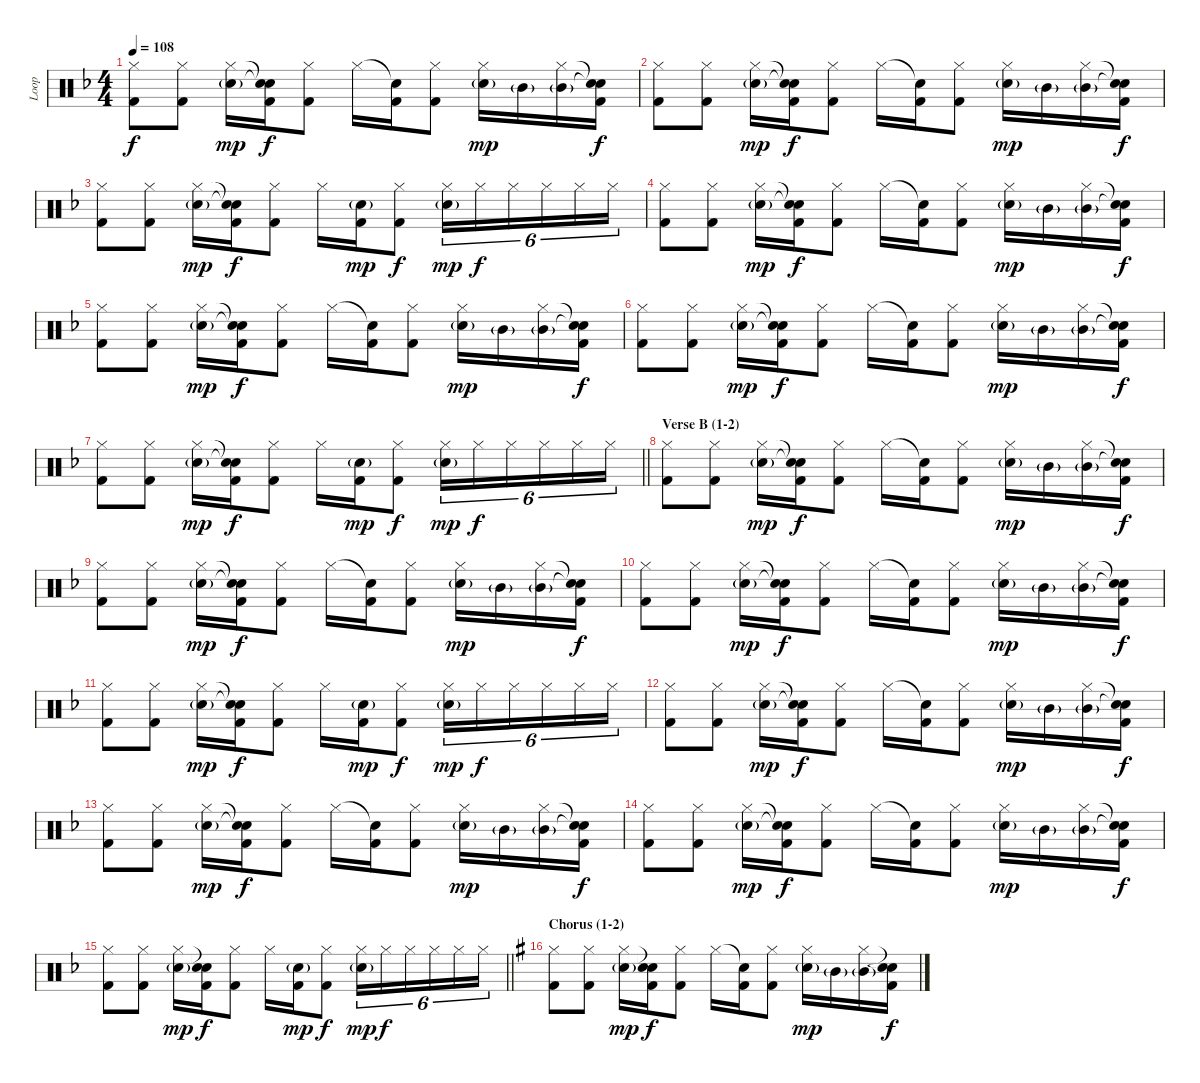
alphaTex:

\track ("Loop" "Loop") {instrument percussion}
\staff {score}
\articulation defaults
\ts (4 4)
\tempo 108
\clef neutral
\ks dminor
("Hi-Hat (closed)" "Kick (hit) 2").8{dy f} ("Hi-Hat (closed)" "Kick (hit) 2").8 ("Hi-Hat (closed)" "Electric Snare (hit)"{g}).16{dy mp} ("Snare (hit)"{t} "Snare (hit)"{t} "Kick (hit) 2").16{dy f} ("Hi-Hat (closed)" "Kick (hit) 2").8 "Hi-Hat (closed)".16 ("Snare (hit)"{t} "Kick (hit) 2").16 ("Hi-Hat (closed)" "Kick (hit) 2").8 ("Hi-Hat (closed)" "Electric Snare (hit)"{g}).16{dy mp} "Mid Tom (hit)"{g}.16 ("Hi-Hat (closed)" "Mid Tom (hit)"{g}).16 ("Snare (hit)"{t} "Snare (hit)"{t} "Kick (hit) 2").16{dy f} |
("Hi-Hat (closed)" "Kick (hit) 2").8 ("Hi-Hat (closed)" "Kick (hit) 2").8 ("Hi-Hat (closed)" "Electric Snare (hit)"{g}).16{dy mp} ("Snare (hit)"{t} "Snare (hit)"{t} "Kick (hit) 2").16{dy f} ("Hi-Hat (closed)" "Kick (hit) 2").8 "Hi-Hat (closed)".16 ("Snare (hit)"{t} "Kick (hit) 2").16 ("Hi-Hat (closed)" "Kick (hit) 2").8 ("Hi-Hat (closed)" "Electric Snare (hit)"{g}).16{dy mp} "Mid Tom (hit)"{g}.16 ("Hi-Hat (closed)" "Mid Tom (hit)"{g}).16 ("Snare (hit)"{t} "Snare (hit)"{t} "Kick (hit) 2").16{dy f} |
("Hi-Hat (closed)" "Kick (hit) 2").8 ("Hi-Hat (closed)" "Kick (hit) 2").8 ("Hi-Hat (closed)" "Electric Snare (hit)"{g}).16{dy mp} ("Snare (hit)"{t} "Snare (hit)"{t} "Kick (hit) 2").16{dy f} ("Hi-Hat (closed)" "Kick (hit) 2").8 "Hi-Hat (closed)".16 ("Electric Snare (hit)"{g} "Kick (hit) 2").16{dy mp} ("Hi-Hat (closed)" "Kick (hit) 2").8{dy f} ("Hi-Hat (closed)" "Electric Snare (hit)"{g}).16{tu (6 4) dy mp} "Hi-Hat (closed)".16{tu (6 4) dy f} "Hi-Hat (closed)".16{tu (6 4)} "Hi-Hat (closed)".16{tu (6 4)} "Hi-Hat (closed)".16{tu (6 4)} "Hi-Hat (closed)".16{tu (6 4)} |
("Hi-Hat (closed)" "Kick (hit) 2").8 ("Hi-Hat (closed)" "Kick (hit) 2").8 ("Hi-Hat (closed)" "Electric Snare (hit)"{g}).16{dy mp} ("Snare (hit)"{t} "Snare (hit)"{t} "Kick (hit) 2").16{dy f} ("Hi-Hat (closed)" "Kick (hit) 2").8 "Hi-Hat (closed)".16 ("Snare (hit)"{t} "Kick (hit) 2").16 ("Hi-Hat (closed)" "Kick (hit) 2").8 ("Hi-Hat (closed)" "Electric Snare (hit)"{g}).16{dy mp} "Mid Tom (hit)"{g}.16 ("Hi-Hat (closed)" "Mid Tom (hit)"{g}).16 ("Snare (hit)"{t} "Snare (hit)"{t} "Kick (hit) 2").16{dy f} |
("Hi-Hat (closed)" "Kick (hit) 2").8 ("Hi-Hat (closed)" "Kick (hit) 2").8 ("Hi-Hat (closed)" "Electric Snare (hit)"{g}).16{dy mp} ("Snare (hit)"{t} "Snare (hit)"{t} "Kick (hit) 2").16{dy f} ("Hi-Hat (closed)" "Kick (hit) 2").8 "Hi-Hat (closed)".16 ("Snare (hit)"{t} "Kick (hit) 2").16 ("Hi-Hat (closed)" "Kick (hit) 2").8 ("Hi-Hat (closed)" "Electric Snare (hit)"{g}).16{dy mp} "Mid Tom (hit)"{g}.16 ("Hi-Hat (closed)" "Mid Tom (hit)"{g}).16 ("Snare (hit)"{t} "Snare (hit)"{t} "Kick (hit) 2").16{dy f} |
("Hi-Hat (closed)" "Kick (hit) 2").8 ("Hi-Hat (closed)" "Kick (hit) 2").8 ("Hi-Hat (closed)" "Electric Snare (hit)"{g}).16{dy mp} ("Snare (hit)"{t} "Snare (hit)"{t} "Kick (hit) 2").16{dy f} ("Hi-Hat (closed)" "Kick (hit) 2").8 "Hi-Hat (closed)".16 ("Snare (hit)"{t} "Kick (hit) 2").16 ("Hi-Hat (closed)" "Kick (hit) 2").8 ("Hi-Hat (closed)" "Electric Snare (hit)"{g}).16{dy mp} "Mid Tom (hit)"{g}.16 ("Hi-Hat (closed)" "Mid Tom (hit)"{g}).16 ("Snare (hit)"{t} "Snare (hit)"{t} "Kick (hit) 2").16{dy f} |
\barLineRight lightlight
("Hi-Hat (closed)" "Kick (hit) 2").8 ("Hi-Hat (closed)" "Kick (hit) 2").8 ("Hi-Hat (closed)" "Electric Snare (hit)"{g}).16{dy mp} ("Snare (hit)"{t} "Snare (hit)"{t} "Kick (hit) 2").16{dy f} ("Hi-Hat (closed)" "Kick (hit) 2").8 "Hi-Hat (closed)".16 ("Electric Snare (hit)"{g} "Kick (hit) 2").16{dy mp} ("Hi-Hat (closed)" "Kick (hit) 2").8{dy f} ("Hi-Hat (closed)" "Electric Snare (hit)"{g}).16{tu (6 4) dy mp} "Hi-Hat (closed)".16{tu (6 4) dy f} "Hi-Hat (closed)".16{tu (6 4)} "Hi-Hat (closed)".16{tu (6 4)} "Hi-Hat (closed)".16{tu (6 4)} "Hi-Hat (closed)".16{tu (6 4)} |
\section ("" "Verse B (1-2)")
("Hi-Hat (closed)" "Kick (hit) 2").8 ("Hi-Hat (closed)" "Kick (hit) 2").8 ("Hi-Hat (closed)" "Electric Snare (hit)"{g}).16{dy mp} ("Snare (hit)"{t} "Snare (hit)"{t} "Kick (hit) 2").16{dy f} ("Hi-Hat (closed)" "Kick (hit) 2").8 "Hi-Hat (closed)".16 ("Snare (hit)"{t} "Kick (hit) 2").16 ("Hi-Hat (closed)" "Kick (hit) 2").8 ("Hi-Hat (closed)" "Electric Snare (hit)"{g}).16{dy mp} "Mid Tom (hit)"{g}.16 ("Hi-Hat (closed)" "Mid Tom (hit)"{g}).16 ("Snare (hit)"{t} "Snare (hit)"{t} "Kick (hit) 2").16{dy f} |
("Hi-Hat (closed)" "Kick (hit) 2").8 ("Hi-Hat (closed)" "Kick (hit) 2").8 ("Hi-Hat (closed)" "Electric Snare (hit)"{g}).16{dy mp} ("Snare (hit)"{t} "Snare (hit)"{t} "Kick (hit) 2").16{dy f} ("Hi-Hat (closed)" "Kick (hit) 2").8 "Hi-Hat (closed)".16 ("Snare (hit)"{t} "Kick (hit) 2").16 ("Hi-Hat (closed)" "Kick (hit) 2").8 ("Hi-Hat (closed)" "Electric Snare (hit)"{g}).16{dy mp} "Mid Tom (hit)"{g}.16 ("Hi-Hat (closed)" "Mid Tom (hit)"{g}).16 ("Snare (hit)"{t} "Snare (hit)"{t} "Kick (hit) 2").16{dy f} |
("Hi-Hat (closed)" "Kick (hit) 2").8 ("Hi-Hat (closed)" "Kick (hit) 2").8 ("Hi-Hat (closed)" "Electric Snare (hit)"{g}).16{dy mp} ("Snare (hit)"{t} "Snare (hit)"{t} "Kick (hit) 2").16{dy f} ("Hi-Hat (closed)" "Kick (hit) 2").8 "Hi-Hat (closed)".16 ("Snare (hit)"{t} "Kick (hit) 2").16 ("Hi-Hat (closed)" "Kick (hit) 2").8 ("Hi-Hat (closed)" "Electric Snare (hit)"{g}).16{dy mp} "Mid Tom (hit)"{g}.16 ("Hi-Hat (closed)" "Mid Tom (hit)"{g}).16 ("Snare (hit)"{t} "Snare (hit)"{t} "Kick (hit) 2").16{dy f} |
("Hi-Hat (closed)" "Kick (hit) 2").8 ("Hi-Hat (closed)" "Kick (hit) 2").8 ("Hi-Hat (closed)" "Electric Snare (hit)"{g}).16{dy mp} ("Snare (hit)"{t} "Snare (hit)"{t} "Kick (hit) 2").16{dy f} ("Hi-Hat (closed)" "Kick (hit) 2").8 "Hi-Hat (closed)".16 ("Electric Snare (hit)"{g} "Kick (hit) 2").16{dy mp} ("Hi-Hat (closed)" "Kick (hit) 2").8{dy f} ("Hi-Hat (closed)" "Electric Snare (hit)"{g}).16{tu (6 4) dy mp} "Hi-Hat (closed)".16{tu (6 4) dy f} "Hi-Hat (closed)".16{tu (6 4)} "Hi-Hat (closed)".16{tu (6 4)} "Hi-Hat (closed)".16{tu (6 4)} "Hi-Hat (closed)".16{tu (6 4)} |
("Hi-Hat (closed)" "Kick (hit) 2").8 ("Hi-Hat (closed)" "Kick (hit) 2").8 ("Hi-Hat (closed)" "Electric Snare (hit)"{g}).16{dy mp} ("Snare (hit)"{t} "Snare (hit)"{t} "Kick (hit) 2").16{dy f} ("Hi-Hat (closed)" "Kick (hit) 2").8 "Hi-Hat (closed)".16 ("Snare (hit)"{t} "Kick (hit) 2").16 ("Hi-Hat (closed)" "Kick (hit) 2").8 ("Hi-Hat (closed)" "Electric Snare (hit)"{g}).16{dy mp} "Mid Tom (hit)"{g}.16 ("Hi-Hat (closed)" "Mid Tom (hit)"{g}).16 ("Snare (hit)"{t} "Snare (hit)"{t} "Kick (hit) 2").16{dy f} |
("Hi-Hat (closed)" "Kick (hit) 2").8 ("Hi-Hat (closed)" "Kick (hit) 2").8 ("Hi-Hat (closed)" "Electric Snare (hit)"{g}).16{dy mp} ("Snare (hit)"{t} "Snare (hit)"{t} "Kick (hit) 2").16{dy f} ("Hi-Hat (closed)" "Kick (hit) 2").8 "Hi-Hat (closed)".16 ("Snare (hit)"{t} "Kick (hit) 2").16 ("Hi-Hat (closed)" "Kick (hit) 2").8 ("Hi-Hat (closed)" "Electric Snare (hit)"{g}).16{dy mp} "Mid Tom (hit)"{g}.16 ("Hi-Hat (closed)" "Mid Tom (hit)"{g}).16 ("Snare (hit)"{t} "Snare (hit)"{t} "Kick (hit) 2").16{dy f} |
("Hi-Hat (closed)" "Kick (hit) 2").8 ("Hi-Hat (closed)" "Kick (hit) 2").8 ("Hi-Hat (closed)" "Electric Snare (hit)"{g}).16{dy mp} ("Snare (hit)"{t} "Snare (hit)"{t} "Kick (hit) 2").16{dy f} ("Hi-Hat (closed)" "Kick (hit) 2").8 "Hi-Hat (closed)".16 ("Snare (hit)"{t} "Kick (hit) 2").16 ("Hi-Hat (closed)" "Kick (hit) 2").8 ("Hi-Hat (closed)" "Electric Snare (hit)"{g}).16{dy mp} "Mid Tom (hit)"{g}.16 ("Hi-Hat (closed)" "Mid Tom (hit)"{g}).16 ("Snare (hit)"{t} "Snare (hit)"{t} "Kick (hit) 2").16{dy f} |
\barLineRight lightlight
("Hi-Hat (closed)" "Kick (hit) 2").8 ("Hi-Hat (closed)" "Kick (hit) 2").8 ("Hi-Hat (closed)" "Electric Snare (hit)"{g}).16{dy mp} ("Snare (hit)"{t} "Snare (hit)"{t} "Kick (hit) 2").16{dy f} ("Hi-Hat (closed)" "Kick (hit) 2").8 "Hi-Hat (closed)".16 ("Electric Snare (hit)"{g} "Kick (hit) 2").16{dy mp} ("Hi-Hat (closed)" "Kick (hit) 2").8{dy f} ("Hi-Hat (closed)" "Electric Snare (hit)"{g}).16{tu (6 4) dy mp} "Hi-Hat (closed)".16{tu (6 4) dy f} "Hi-Hat (closed)".16{tu (6 4)} "Hi-Hat (closed)".16{tu (6 4)} "Hi-Hat (closed)".16{tu (6 4)} "Hi-Hat (closed)".16{tu (6 4)} |
\section ("" "Chorus (1-2)")
\ks eminor
("Hi-Hat (closed)" "Kick (hit) 2").8 ("Hi-Hat (closed)" "Kick (hit) 2").8 ("Hi-Hat (closed)" "Electric Snare (hit)"{g}).16{dy mp} ("Snare (hit)"{t} "Snare (hit)"{t} "Kick (hit) 2").16{dy f} ("Hi-Hat (closed)" "Kick (hit) 2").8 "Hi-Hat (closed)".16 ("Snare (hit)"{t} "Kick (hit) 2").16 ("Hi-Hat (closed)" "Kick (hit) 2").8 ("Hi-Hat (closed)" "Electric Snare (hit)"{g}).16{dy mp} "Mid Tom (hit)"{g}.16 ("Hi-Hat (closed)" "Mid Tom (hit)"{g}).16 ("Snare (hit)"{t} "Snare (hit)"{t} "Kick (hit) 2").16{dy f}
